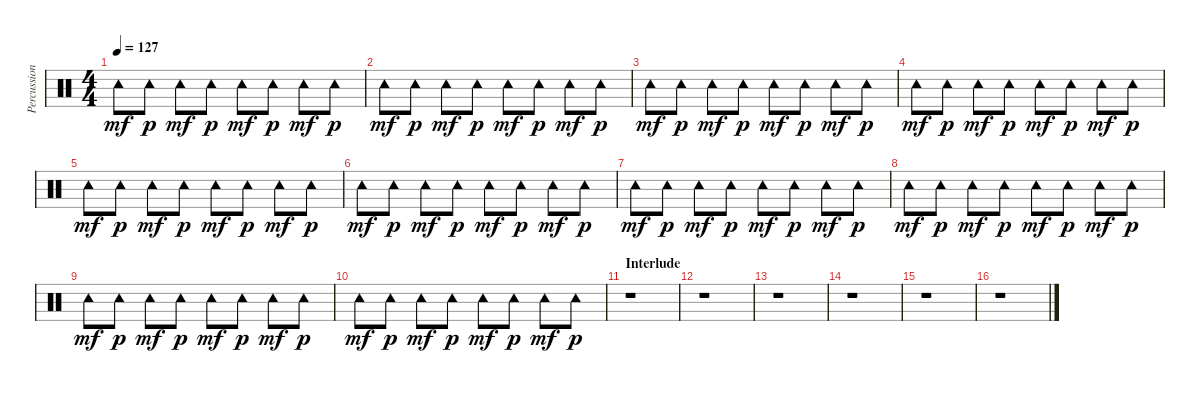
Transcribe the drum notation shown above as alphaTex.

\track ("Percussion Overdubs" "Percussion") {instrument percussion}
\staff {score}
\articulation defaults
\ts (4 4)
\tempo 127
\clef neutral
\ks c "Tambourine (hit)".8{dy mf} "Tambourine (hit)".8{dy p} "Tambourine (hit)".8{dy mf} "Tambourine (hit)".8{dy p} "Tambourine (hit)".8{dy mf} "Tambourine (hit)".8{dy p} "Tambourine (hit)".8{dy mf} "Tambourine (hit)".8{dy p}
|
"Tambourine (hit)".8{dy mf} "Tambourine (hit)".8{dy p} "Tambourine (hit)".8{dy mf} "Tambourine (hit)".8{dy p} "Tambourine (hit)".8{dy mf} "Tambourine (hit)".8{dy p} "Tambourine (hit)".8{dy mf} "Tambourine (hit)".8{dy p} |
"Tambourine (hit)".8{dy mf} "Tambourine (hit)".8{dy p} "Tambourine (hit)".8{dy mf} "Tambourine (hit)".8{dy p} "Tambourine (hit)".8{dy mf} "Tambourine (hit)".8{dy p} "Tambourine (hit)".8{dy mf} "Tambourine (hit)".8{dy p} |
"Tambourine (hit)".8{dy mf} "Tambourine (hit)".8{dy p} "Tambourine (hit)".8{dy mf} "Tambourine (hit)".8{dy p} "Tambourine (hit)".8{dy mf} "Tambourine (hit)".8{dy p} "Tambourine (hit)".8{dy mf} "Tambourine (hit)".8{dy p} |
"Tambourine (hit)".8{dy mf} "Tambourine (hit)".8{dy p} "Tambourine (hit)".8{dy mf} "Tambourine (hit)".8{dy p} "Tambourine (hit)".8{dy mf} "Tambourine (hit)".8{dy p} "Tambourine (hit)".8{dy mf} "Tambourine (hit)".8{dy p} |
"Tambourine (hit)".8{dy mf} "Tambourine (hit)".8{dy p} "Tambourine (hit)".8{dy mf} "Tambourine (hit)".8{dy p} "Tambourine (hit)".8{dy mf} "Tambourine (hit)".8{dy p} "Tambourine (hit)".8{dy mf} "Tambourine (hit)".8{dy p} |
"Tambourine (hit)".8{dy mf} "Tambourine (hit)".8{dy p} "Tambourine (hit)".8{dy mf} "Tambourine (hit)".8{dy p} "Tambourine (hit)".8{dy mf} "Tambourine (hit)".8{dy p} "Tambourine (hit)".8{dy mf} "Tambourine (hit)".8{dy p} |
"Tambourine (hit)".8{dy mf} "Tambourine (hit)".8{dy p} "Tambourine (hit)".8{dy mf} "Tambourine (hit)".8{dy p} "Tambourine (hit)".8{dy mf} "Tambourine (hit)".8{dy p} "Tambourine (hit)".8{dy mf} "Tambourine (hit)".8{dy p} |
"Tambourine (hit)".8{dy mf} "Tambourine (hit)".8{dy p} "Tambourine (hit)".8{dy mf} "Tambourine (hit)".8{dy p} "Tambourine (hit)".8{dy mf} "Tambourine (hit)".8{dy p} "Tambourine (hit)".8{dy mf} "Tambourine (hit)".8{dy p} |
"Tambourine (hit)".8{dy mf} "Tambourine (hit)".8{dy p} "Tambourine (hit)".8{dy mf} "Tambourine (hit)".8{dy p} "Tambourine (hit)".8{dy mf} "Tambourine (hit)".8{dy p} "Tambourine (hit)".8{dy mf} "Tambourine (hit)".8{dy p} |
\section ("" "Interlude")
r.1 |
r.1 |
r.1 |
r.1 |
r.1 |
r.1
